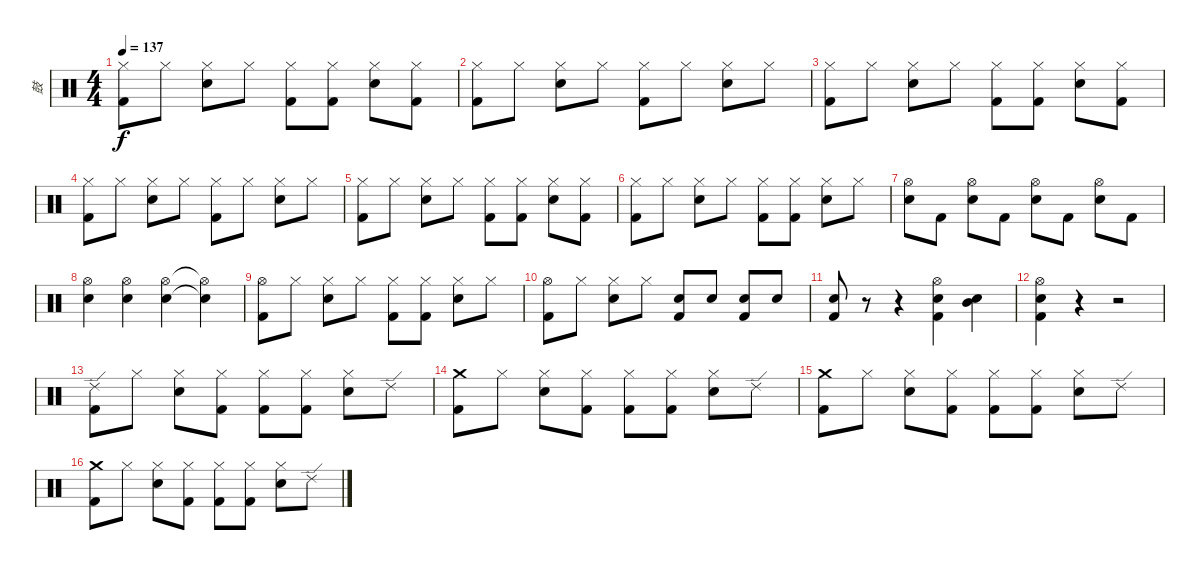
\track ("鼓" "鼓") {instrument percussion}
\staff {score}
\articulation defaults
\ts (4 4)
\tempo 137
\clef neutral
\ks c
("Hi-Hat (closed)" "Kick (hit) 2").8{dy f} "Hi-Hat (closed)".8 ("Hi-Hat (closed)" "Snare (hit) 2").8 "Hi-Hat (closed)".8 ("Hi-Hat (closed)" "Kick (hit) 2").8 ("Hi-Hat (closed)" "Kick (hit) 2").8 ("Hi-Hat (closed)" "Snare (hit) 2").8 ("Hi-Hat (closed)" "Kick (hit) 2").8 |
("Hi-Hat (closed)" "Kick (hit) 2").8 "Hi-Hat (closed)".8 ("Hi-Hat (closed)" "Snare (hit) 2").8 "Hi-Hat (closed)".8 ("Hi-Hat (closed)" "Kick (hit) 2").8 "Hi-Hat (closed)".8 ("Hi-Hat (closed)" "Snare (hit) 2").8 "Hi-Hat (closed)".8 |
("Hi-Hat (closed)" "Kick (hit) 2").8 "Hi-Hat (closed)".8 ("Hi-Hat (closed)" "Snare (hit) 2").8 "Hi-Hat (closed)".8 ("Hi-Hat (closed)" "Kick (hit) 2").8 ("Hi-Hat (closed)" "Kick (hit) 2").8 ("Hi-Hat (closed)" "Snare (hit) 2").8 ("Hi-Hat (closed)" "Kick (hit) 2").8 |
("Hi-Hat (closed)" "Kick (hit) 2").8 "Hi-Hat (closed)".8 ("Hi-Hat (closed)" "Snare (hit) 2").8 "Hi-Hat (closed)".8 ("Hi-Hat (closed)" "Kick (hit) 2").8 "Hi-Hat (closed)".8 ("Hi-Hat (closed)" "Snare (hit) 2").8 "Hi-Hat (closed)".8 |
("Hi-Hat (closed)" "Kick (hit) 2").8 "Hi-Hat (closed)".8 ("Hi-Hat (closed)" "Snare (hit) 2").8 "Hi-Hat (closed)".8 ("Hi-Hat (closed)" "Kick (hit) 2").8 ("Hi-Hat (closed)" "Kick (hit) 2").8 ("Hi-Hat (closed)" "Snare (hit) 2").8 ("Hi-Hat (closed)" "Kick (hit) 2").8 |
("Hi-Hat (closed)" "Kick (hit) 2").8 "Hi-Hat (closed)".8 ("Hi-Hat (closed)" "Snare (hit) 2").8 "Hi-Hat (closed)".8 ("Hi-Hat (closed)" "Kick (hit) 2").8 ("Hi-Hat (closed)" "Kick (hit) 2").8 ("Hi-Hat (closed)" "Snare (hit) 2").8 "Hi-Hat (closed)".8 |
("Hi-Hat (open)" "Snare (hit) 2").8 "Kick (hit) 2".8 ("Hi-Hat (open)" "Snare (hit) 2").8 "Kick (hit) 2".8 ("Hi-Hat (open)" "Snare (hit) 2").8 "Kick (hit) 2".8 ("Hi-Hat (open)" "Snare (hit) 2").8 "Kick (hit) 2".8 |
("Hi-Hat (open)" "Snare (hit) 2").4 ("Hi-Hat (open)" "Snare (hit) 2").4 ("Hi-Hat (open)" "Snare (hit) 2").4 ("Hi-Hat (open)"{t} "Snare (hit) 2"{t}).4 |
("Hi-Hat (open)" "Kick (hit) 2").8 "Hi-Hat (closed)".8 ("Hi-Hat (closed)" "Snare (hit) 2").8 "Hi-Hat (closed)".8 ("Hi-Hat (closed)" "Kick (hit) 2").8 ("Hi-Hat (closed)" "Kick (hit) 2").8 ("Hi-Hat (closed)" "Snare (hit) 2").8 "Hi-Hat (closed)".8 |
("Hi-Hat (open)" "Kick (hit) 2").8 "Hi-Hat (closed)".8 ("Hi-Hat (closed)" "Snare (hit) 2").8 "Hi-Hat (closed)".8 ("Snare (hit) 2" "Kick (hit) 2").8 "Snare (hit) 2".8 ("Snare (hit) 2" "Kick (hit) 2").8 "Snare (hit) 2".8 |
("Snare (hit) 2" "Kick (hit) 2").8 r.8 r.4 ("Hi-Hat (open)" "Snare (hit) 2" "Kick (hit) 2").4 ("Mid Tom (hit)" "Snare (hit) 2").4 |
("Hi-Hat (open)" "Snare (hit) 2" "Kick (hit) 2").4 r.4 r.2 |
("Ride (edge) 2" "Kick (hit) 2").8 "Hi-Hat (closed)".8 ("Hi-Hat (closed)" "Snare (hit) 2").8 ("Hi-Hat (closed)" "Kick (hit) 2").8 ("Hi-Hat (closed)" "Kick (hit) 2").8 ("Hi-Hat (closed)" "Kick (hit) 2").8 ("Hi-Hat (closed)" "Snare (hit) 2").8 "Ride (edge) 2".8 |
("Crash medium (hit)" "Kick (hit) 2").8 "Hi-Hat (closed)".8 ("Hi-Hat (closed)" "Snare (hit) 2").8 ("Hi-Hat (closed)" "Kick (hit) 2").8 ("Hi-Hat (closed)" "Kick (hit) 2").8 ("Hi-Hat (closed)" "Kick (hit) 2").8 ("Hi-Hat (closed)" "Snare (hit) 2").8 "Ride (edge) 2".8 |
("Crash medium (hit)" "Kick (hit) 2").8 "Hi-Hat (closed)".8 ("Hi-Hat (closed)" "Snare (hit) 2").8 ("Hi-Hat (closed)" "Kick (hit) 2").8 ("Hi-Hat (closed)" "Kick (hit) 2").8 ("Hi-Hat (closed)" "Kick (hit) 2").8 ("Hi-Hat (closed)" "Snare (hit) 2").8 "Ride (edge) 2".8 |
("Crash medium (hit)" "Kick (hit) 2").8 "Hi-Hat (closed)".8 ("Hi-Hat (closed)" "Snare (hit) 2").8 ("Hi-Hat (closed)" "Kick (hit) 2").8 ("Hi-Hat (closed)" "Kick (hit) 2").8 ("Hi-Hat (closed)" "Kick (hit) 2").8 ("Hi-Hat (closed)" "Snare (hit) 2").8 "Ride (edge) 2".8
